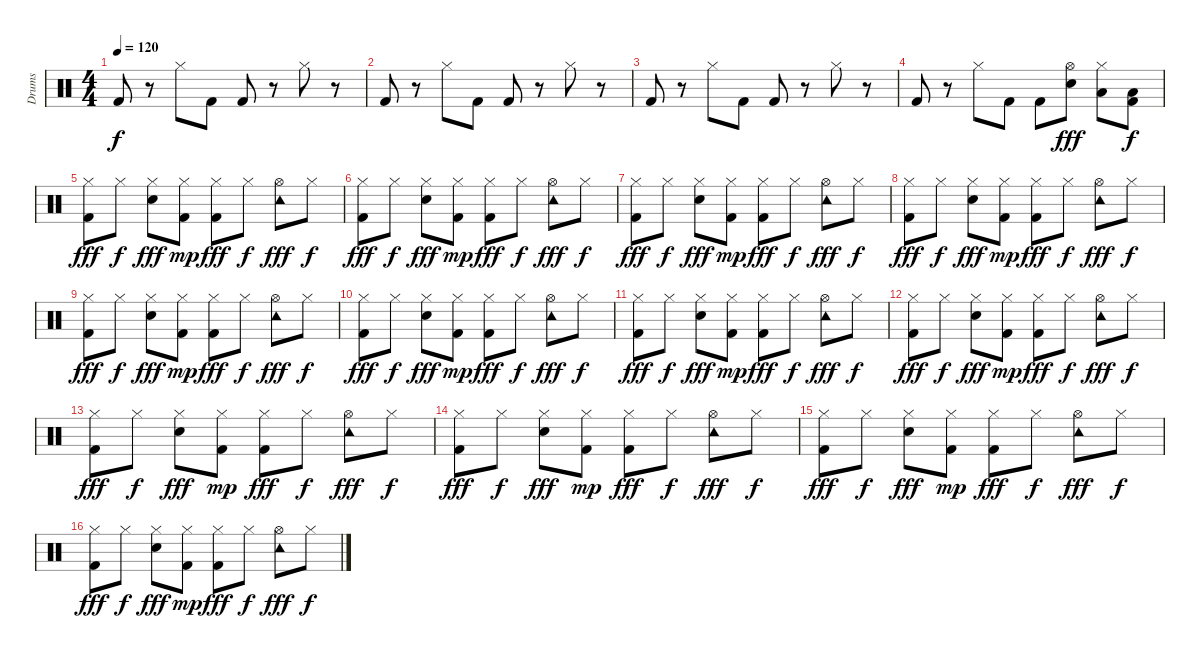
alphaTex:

\track ("Drums" "Drums") {instrument percussion}
\staff {score}
\articulation defaults
\ts (4 4)
\tempo 120
\clef neutral
\ks c "Kick (hit) 2".8{dy f}
r.8 "Hi-Hat (closed)".8 "Kick (hit) 2".8 "Kick (hit) 2".8 r.8 "Hi-Hat (closed)".8 r.8 |
"Kick (hit) 2".8 r.8 "Hi-Hat (closed)".8 "Kick (hit) 2".8 "Kick (hit) 2".8 r.8 "Hi-Hat (closed)".8 r.8 |
"Kick (hit) 2".8 r.8 "Hi-Hat (closed)".8 "Kick (hit) 2".8 "Kick (hit) 2".8 r.8 "Hi-Hat (closed)".8 r.8 |
"Kick (hit) 2".8 r.8 "Hi-Hat (closed)".8 "Kick (hit) 2".8 "Kick (hit) 2".8 ("Hi-Hat (open)" "Snare (hit) 2").8{dy fff} ("Hi-Hat (closed)" "Low Tom (hit)").8 ("Low Floor Tom (hit)" "Kick (hit) 2").8{dy f} |
("Hi-Hat (closed)" "Kick (hit) 2").8{dy fff} "Hi-Hat (closed)".8{dy f} ("Hi-Hat (closed)" "Snare (hit) 2").8{dy fff} ("Hi-Hat (closed)" "Kick (hit) 2").8{dy mp} ("Hi-Hat (closed)" "Kick (hit) 2").8{dy fff} "Hi-Hat (closed)".8{dy f} ("Tambourine (hit)" "Hi-Hat (open)").8{dy fff} "Hi-Hat (closed)".8{dy f} |
("Hi-Hat (closed)" "Kick (hit) 2").8{dy fff} "Hi-Hat (closed)".8{dy f} ("Hi-Hat (closed)" "Snare (hit) 2").8{dy fff} ("Hi-Hat (closed)" "Kick (hit) 2").8{dy mp} ("Hi-Hat (closed)" "Kick (hit) 2").8{dy fff} "Hi-Hat (closed)".8{dy f} ("Tambourine (hit)" "Hi-Hat (open)").8{dy fff} "Hi-Hat (closed)".8{dy f} |
("Hi-Hat (closed)" "Kick (hit) 2").8{dy fff} "Hi-Hat (closed)".8{dy f} ("Hi-Hat (closed)" "Snare (hit) 2").8{dy fff} ("Hi-Hat (closed)" "Kick (hit) 2").8{dy mp} ("Hi-Hat (closed)" "Kick (hit) 2").8{dy fff} "Hi-Hat (closed)".8{dy f} ("Tambourine (hit)" "Hi-Hat (open)").8{dy fff} "Hi-Hat (closed)".8{dy f} |
("Hi-Hat (closed)" "Kick (hit) 2").8{dy fff} "Hi-Hat (closed)".8{dy f} ("Hi-Hat (closed)" "Snare (hit) 2").8{dy fff} ("Hi-Hat (closed)" "Kick (hit) 2").8{dy mp} ("Hi-Hat (closed)" "Kick (hit) 2").8{dy fff} "Hi-Hat (closed)".8{dy f} ("Tambourine (hit)" "Hi-Hat (open)").8{dy fff} "Hi-Hat (closed)".8{dy f} |
("Hi-Hat (closed)" "Kick (hit) 2").8{dy fff} "Hi-Hat (closed)".8{dy f} ("Hi-Hat (closed)" "Snare (hit) 2").8{dy fff} ("Hi-Hat (closed)" "Kick (hit) 2").8{dy mp} ("Hi-Hat (closed)" "Kick (hit) 2").8{dy fff} "Hi-Hat (closed)".8{dy f} ("Tambourine (hit)" "Hi-Hat (open)").8{dy fff} "Hi-Hat (closed)".8{dy f} |
("Hi-Hat (closed)" "Kick (hit) 2").8{dy fff} "Hi-Hat (closed)".8{dy f} ("Hi-Hat (closed)" "Snare (hit) 2").8{dy fff} ("Hi-Hat (closed)" "Kick (hit) 2").8{dy mp} ("Hi-Hat (closed)" "Kick (hit) 2").8{dy fff} "Hi-Hat (closed)".8{dy f} ("Tambourine (hit)" "Hi-Hat (open)").8{dy fff} "Hi-Hat (closed)".8{dy f} |
("Hi-Hat (closed)" "Kick (hit) 2").8{dy fff} "Hi-Hat (closed)".8{dy f} ("Hi-Hat (closed)" "Snare (hit) 2").8{dy fff} ("Hi-Hat (closed)" "Kick (hit) 2").8{dy mp} ("Hi-Hat (closed)" "Kick (hit) 2").8{dy fff} "Hi-Hat (closed)".8{dy f} ("Tambourine (hit)" "Hi-Hat (open)").8{dy fff} "Hi-Hat (closed)".8{dy f} |
("Hi-Hat (closed)" "Kick (hit) 2").8{dy fff} "Hi-Hat (closed)".8{dy f} ("Hi-Hat (closed)" "Snare (hit) 2").8{dy fff} ("Hi-Hat (closed)" "Kick (hit) 2").8{dy mp} ("Hi-Hat (closed)" "Kick (hit) 2").8{dy fff} "Hi-Hat (closed)".8{dy f} ("Tambourine (hit)" "Hi-Hat (open)").8{dy fff} "Hi-Hat (closed)".8{dy f} |
("Hi-Hat (closed)" "Kick (hit) 2").8{dy fff} "Hi-Hat (closed)".8{dy f} ("Hi-Hat (closed)" "Snare (hit) 2").8{dy fff} ("Hi-Hat (closed)" "Kick (hit) 2").8{dy mp} ("Hi-Hat (closed)" "Kick (hit) 2").8{dy fff} "Hi-Hat (closed)".8{dy f} ("Tambourine (hit)" "Hi-Hat (open)").8{dy fff} "Hi-Hat (closed)".8{dy f} |
("Hi-Hat (closed)" "Kick (hit) 2").8{dy fff} "Hi-Hat (closed)".8{dy f} ("Hi-Hat (closed)" "Snare (hit) 2").8{dy fff} ("Hi-Hat (closed)" "Kick (hit) 2").8{dy mp} ("Hi-Hat (closed)" "Kick (hit) 2").8{dy fff} "Hi-Hat (closed)".8{dy f} ("Tambourine (hit)" "Hi-Hat (open)").8{dy fff} "Hi-Hat (closed)".8{dy f} |
("Hi-Hat (closed)" "Kick (hit) 2").8{dy fff} "Hi-Hat (closed)".8{dy f} ("Hi-Hat (closed)" "Snare (hit) 2").8{dy fff} ("Hi-Hat (closed)" "Kick (hit) 2").8{dy mp} ("Hi-Hat (closed)" "Kick (hit) 2").8{dy fff} "Hi-Hat (closed)".8{dy f} ("Tambourine (hit)" "Hi-Hat (open)").8{dy fff} "Hi-Hat (closed)".8{dy f} |
("Hi-Hat (closed)" "Kick (hit) 2").8{dy fff} "Hi-Hat (closed)".8{dy f} ("Hi-Hat (closed)" "Snare (hit) 2").8{dy fff} ("Hi-Hat (closed)" "Kick (hit) 2").8{dy mp} ("Hi-Hat (closed)" "Kick (hit) 2").8{dy fff} "Hi-Hat (closed)".8{dy f} ("Tambourine (hit)" "Hi-Hat (open)").8{dy fff} "Hi-Hat (closed)".8{dy f}
